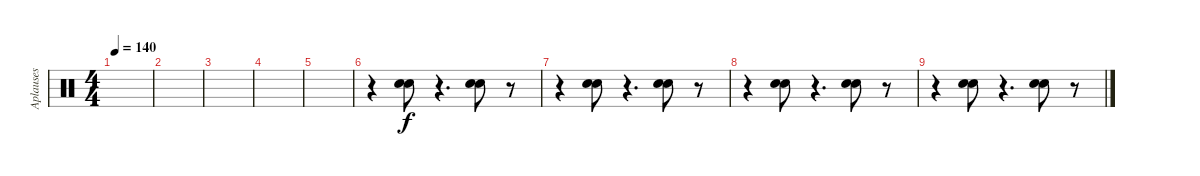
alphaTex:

\track ("Aplauses" "Aplauses") {instrument percussion}
\staff {score}
\articulation defaults
\ts (4 4)
\tempo 140
\clef neutral
\ks c
|
|
|
|
|
r.4 ("Hand Clap (hit)" "Hand Clap (hit)").8 r.4{d} ("Hand Clap (hit)" "Hand Clap (hit)").8 r.8 |
r.4 ("Hand Clap (hit)" "Hand Clap (hit)").8 r.4{d} ("Hand Clap (hit)" "Hand Clap (hit)").8 r.8 |
r.4 ("Hand Clap (hit)" "Hand Clap (hit)").8 r.4{d} ("Hand Clap (hit)" "Hand Clap (hit)").8 r.8 |
r.4 ("Hand Clap (hit)" "Hand Clap (hit)").8 r.4{d} ("Hand Clap (hit)" "Hand Clap (hit)").8 r.8
